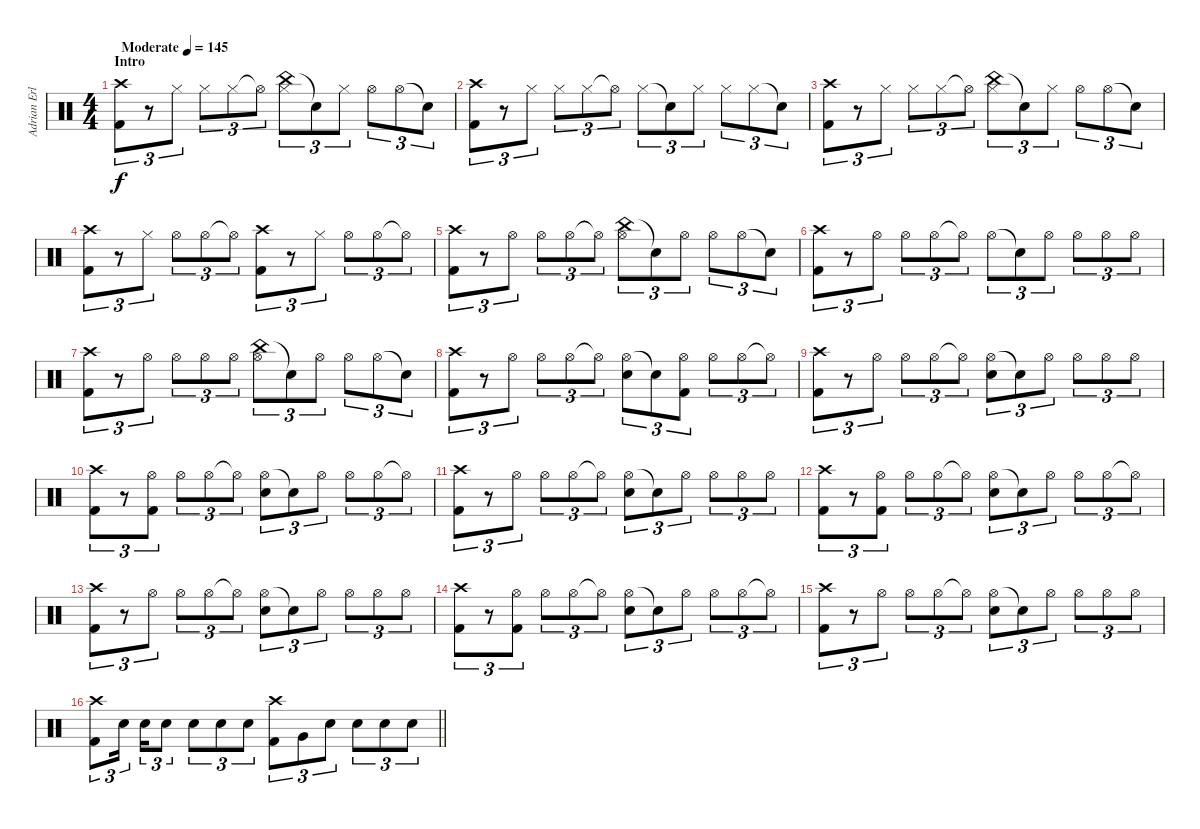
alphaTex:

\track ("Adrian Erlandsson" "Adrian Erl") {instrument percussion}
\staff {score}
\articulation defaults
\ts (4 4)
\section ("" "Intro")
\tempo (145 "Moderate")
\clef neutral
\ks c
("Crash high (hit)" "Kick (hit) 2").8{tu (3 2) dy f} r.8{tu (3 2)} "Hi-Hat (closed)".8{tu (3 2)} "Hi-Hat (closed)".8{tu (3 2)} "Hi-Hat (closed)".8{tu (3 2)} "Hi-Hat (open)"{t}.8{tu (3 2)} ("China (hit)" "Hi-Hat (closed)").8{tu (3 2)} "Snare (hit)"{t}.8{tu (3 2)} "Hi-Hat (closed)".8{tu (3 2)} "Hi-Hat (open)".8{tu (3 2)} "Hi-Hat (open)".8{tu (3 2)} "Snare (hit)"{t}.8{tu (3 2)} |
("Crash high (hit)" "Kick (hit) 2").8{tu (3 2)} r.8{tu (3 2)} "Hi-Hat (closed)".8{tu (3 2)} "Hi-Hat (closed)".8{tu (3 2)} "Hi-Hat (closed)".8{tu (3 2)} "Hi-Hat (open)"{t}.8{tu (3 2)} "Hi-Hat (closed)".8{tu (3 2)} "Snare (hit)"{t}.8{tu (3 2)} "Hi-Hat (closed)".8{tu (3 2)} "Hi-Hat (closed)".8{tu (3 2)} "Hi-Hat (closed)".8{tu (3 2)} "Snare (hit)"{t}.8{tu (3 2)} |
("Crash high (hit)" "Kick (hit) 2").8{tu (3 2)} r.8{tu (3 2)} "Hi-Hat (closed)".8{tu (3 2)} "Hi-Hat (closed)".8{tu (3 2)} "Hi-Hat (closed)".8{tu (3 2)} "Hi-Hat (open)"{t}.8{tu (3 2)} ("China (hit)" "Hi-Hat (closed)").8{tu (3 2)} "Snare (hit)"{t}.8{tu (3 2)} "Hi-Hat (closed)".8{tu (3 2)} "Hi-Hat (open)".8{tu (3 2)} "Hi-Hat (open)".8{tu (3 2)} "Snare (hit)"{t}.8{tu (3 2)} |
("Crash high (hit)" "Kick (hit) 2").8{tu (3 2)} r.8{tu (3 2)} "Hi-Hat (closed)".8{tu (3 2)} "Hi-Hat (open)".8{tu (3 2)} "Hi-Hat (open)".8{tu (3 2)} "Hi-Hat (open)"{t}.8{tu (3 2)} ("Crash high (hit)" "Kick (hit) 2").8{tu (3 2)} r.8{tu (3 2)} "Hi-Hat (closed)".8{tu (3 2)} "Hi-Hat (open)".8{tu (3 2)} "Hi-Hat (open)".8{tu (3 2)} "Hi-Hat (open)"{t}.8{tu (3 2)} |
("Crash high (hit)" "Kick (hit) 2").8{tu (3 2)} r.8{tu (3 2)} "Hi-Hat (open)".8{tu (3 2)} "Hi-Hat (open)".8{tu (3 2)} "Hi-Hat (open)".8{tu (3 2)} "Hi-Hat (open)"{t}.8{tu (3 2)} ("China (hit)" "Hi-Hat (open)").8{tu (3 2)} "Snare (hit)"{t}.8{tu (3 2)} "Hi-Hat (open)".8{tu (3 2)} "Hi-Hat (open)".8{tu (3 2)} "Hi-Hat (open)".8{tu (3 2)} "Snare (hit)"{t}.8{tu (3 2)} |
("Crash high (hit)" "Kick (hit) 2").8{tu (3 2)} r.8{tu (3 2)} "Hi-Hat (open)".8{tu (3 2)} "Hi-Hat (open)".8{tu (3 2)} "Hi-Hat (open)".8{tu (3 2)} "Hi-Hat (open)"{t}.8{tu (3 2)} "Hi-Hat (open)".8{tu (3 2)} "Snare (hit)"{t}.8{tu (3 2)} "Hi-Hat (open)".8{tu (3 2)} "Hi-Hat (open)".8{tu (3 2)} "Hi-Hat (open)".8{tu (3 2)} "Hi-Hat (open)".8{tu (3 2)} |
("Crash high (hit)" "Kick (hit) 2").8{tu (3 2)} r.8{tu (3 2)} "Hi-Hat (open)".8{tu (3 2)} "Hi-Hat (open)".8{tu (3 2)} "Hi-Hat (open)".8{tu (3 2)} "Hi-Hat (open)".8{tu (3 2)} ("China (hit)" "Hi-Hat (open)").8{tu (3 2)} "Snare (hit)"{t}.8{tu (3 2)} "Hi-Hat (open)".8{tu (3 2)} "Hi-Hat (open)".8{tu (3 2)} "Hi-Hat (open)".8{tu (3 2)} "Snare (hit)"{t}.8{tu (3 2)} |
("Crash high (hit)" "Kick (hit) 2").8{tu (3 2)} r.8{tu (3 2)} "Hi-Hat (open)".8{tu (3 2)} "Hi-Hat (open)".8{tu (3 2)} "Hi-Hat (open)".8{tu (3 2)} "Hi-Hat (open)"{t}.8{tu (3 2)} ("Hi-Hat (open)" "Snare (hit) 2").8{tu (3 2)} "Snare (hit)"{t}.8{tu (3 2)} ("Hi-Hat (open)" "Kick (hit) 2").8{tu (3 2)} "Hi-Hat (open)".8{tu (3 2)} "Hi-Hat (open)".8{tu (3 2)} "Hi-Hat (open)"{t}.8{tu (3 2)} |
("Crash high (hit)" "Kick (hit) 2").8{tu (3 2)} r.8{tu (3 2)} "Hi-Hat (open)".8{tu (3 2)} "Hi-Hat (open)".8{tu (3 2)} "Hi-Hat (open)".8{tu (3 2)} "Hi-Hat (open)"{t}.8{tu (3 2)} ("Hi-Hat (open)" "Snare (hit) 2").8{tu (3 2)} "Snare (hit)"{t}.8{tu (3 2)} "Hi-Hat (open)".8{tu (3 2)} "Hi-Hat (open)".8{tu (3 2)} "Hi-Hat (open)".8{tu (3 2)} "Hi-Hat (open)".8{tu (3 2)} |
("Crash high (hit)" "Kick (hit) 2").8{tu (3 2)} r.8{tu (3 2)} ("Hi-Hat (open)" "Kick (hit) 2").8{tu (3 2)} "Hi-Hat (open)".8{tu (3 2)} "Hi-Hat (open)".8{tu (3 2)} "Hi-Hat (open)"{t}.8{tu (3 2)} ("Hi-Hat (open)" "Snare (hit) 2").8{tu (3 2)} "Snare (hit)"{t}.8{tu (3 2)} "Hi-Hat (open)".8{tu (3 2)} "Hi-Hat (open)".8{tu (3 2)} "Hi-Hat (open)".8{tu (3 2)} "Hi-Hat (open)"{t}.8{tu (3 2)} |
("Crash high (hit)" "Kick (hit) 2").8{tu (3 2)} r.8{tu (3 2)} "Hi-Hat (open)".8{tu (3 2)} "Hi-Hat (open)".8{tu (3 2)} "Hi-Hat (open)".8{tu (3 2)} "Hi-Hat (open)"{t}.8{tu (3 2)} ("Hi-Hat (open)" "Snare (hit) 2").8{tu (3 2)} "Snare (hit)"{t}.8{tu (3 2)} "Hi-Hat (open)".8{tu (3 2)} "Hi-Hat (open)".8{tu (3 2)} "Hi-Hat (open)".8{tu (3 2)} "Hi-Hat (open)".8{tu (3 2)} |
("Crash high (hit)" "Kick (hit) 2").8{tu (3 2)} r.8{tu (3 2)} ("Hi-Hat (open)" "Kick (hit) 2").8{tu (3 2)} "Hi-Hat (open)".8{tu (3 2)} "Hi-Hat (open)".8{tu (3 2)} "Hi-Hat (open)"{t}.8{tu (3 2)} ("Hi-Hat (open)" "Snare (hit) 2").8{tu (3 2)} "Snare (hit)"{t}.8{tu (3 2)} "Hi-Hat (open)".8{tu (3 2)} "Hi-Hat (open)".8{tu (3 2)} "Hi-Hat (open)".8{tu (3 2)} "Hi-Hat (open)"{t}.8{tu (3 2)} |
("Crash high (hit)" "Kick (hit) 2").8{tu (3 2)} r.8{tu (3 2)} "Hi-Hat (open)".8{tu (3 2)} "Hi-Hat (open)".8{tu (3 2)} "Hi-Hat (open)".8{tu (3 2)} "Hi-Hat (open)"{t}.8{tu (3 2)} ("Hi-Hat (open)" "Snare (hit) 2").8{tu (3 2)} "Snare (hit)"{t}.8{tu (3 2)} "Hi-Hat (open)".8{tu (3 2)} "Hi-Hat (open)".8{tu (3 2)} "Hi-Hat (open)".8{tu (3 2)} "Hi-Hat (open)".8{tu (3 2)} |
("Crash high (hit)" "Kick (hit) 2").8{tu (3 2)} r.8{tu (3 2)} ("Hi-Hat (open)" "Kick (hit) 2").8{tu (3 2)} "Hi-Hat (open)".8{tu (3 2)} "Hi-Hat (open)".8{tu (3 2)} "Hi-Hat (open)"{t}.8{tu (3 2)} ("Hi-Hat (open)" "Snare (hit) 2").8{tu (3 2)} "Snare (hit)"{t}.8{tu (3 2)} "Hi-Hat (open)".8{tu (3 2)} "Hi-Hat (open)".8{tu (3 2)} "Hi-Hat (open)".8{tu (3 2)} "Hi-Hat (open)"{t}.8{tu (3 2)} |
("Crash high (hit)" "Kick (hit) 2").8{tu (3 2)} r.8{tu (3 2)} "Hi-Hat (open)".8{tu (3 2)} "Hi-Hat (open)".8{tu (3 2)} "Hi-Hat (open)".8{tu (3 2)} "Hi-Hat (open)"{t}.8{tu (3 2)} ("Hi-Hat (open)" "Snare (hit) 2").8{tu (3 2)} "Snare (hit)"{t}.8{tu (3 2)} "Hi-Hat (open)".8{tu (3 2)} "Hi-Hat (open)".8{tu (3 2)} "Hi-Hat (open)".8{tu (3 2)} "Hi-Hat (open)".8{tu (3 2)} |
\barLineRight lightlight
("Crash high (hit)" "Kick (hit) 2").8{tu (3 2)} "Snare (hit) 2".16{tu (3 2) beam splitsecondary} "Snare (hit) 2".16{tu (3 2)} "Snare (hit) 2".8{tu (3 2)} "Snare (hit) 2".8{tu (3 2)} "Snare (hit) 2".8{tu (3 2)} "Snare (hit) 2".8{tu (3 2)} ("Crash high (hit)" "Kick (hit) 2").8{tu (3 2)} "Very Low Tom (hit)".8{tu (3 2)} "Snare (hit) 2".8{tu (3 2)} "Snare (hit) 2".8{tu (3 2)} "Snare (hit) 2".8{tu (3 2)} "Snare (hit) 2".8{tu (3 2)}
